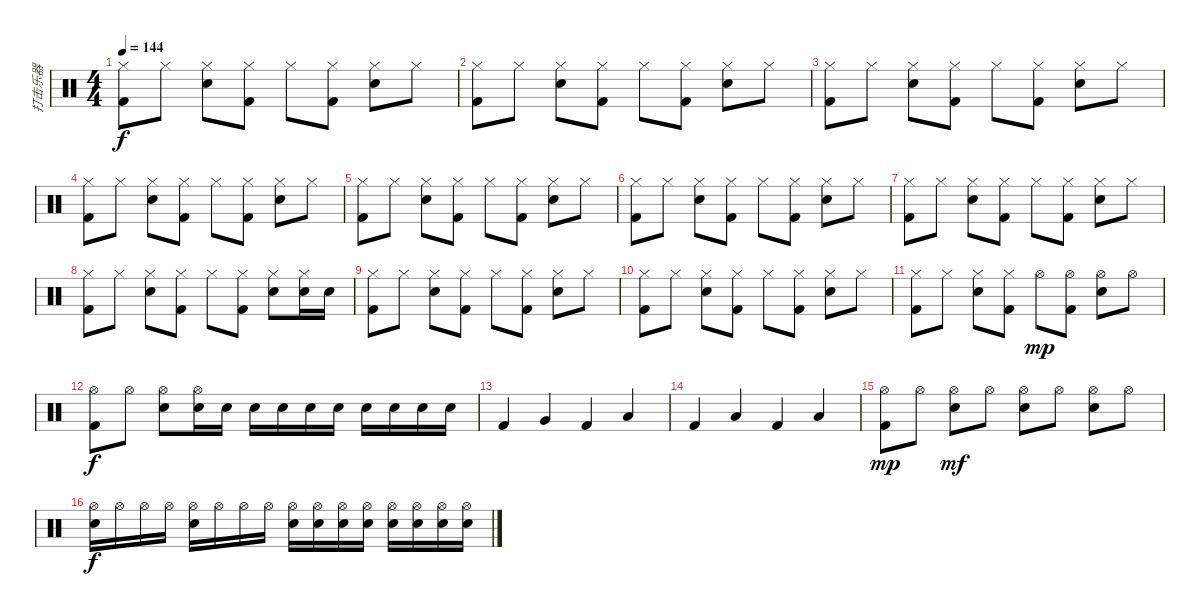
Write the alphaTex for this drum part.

\track ("打击乐器" "打击乐器") {instrument percussion}
\staff {score}
\articulation defaults
\ts (4 4)
\tempo 144
\clef neutral
\ks c
("Hi-Hat (closed)" "Kick (hit) 2").8{dy f} "Hi-Hat (closed)".8 ("Hi-Hat (closed)" "Electric Snare (hit)").8 ("Hi-Hat (closed)" "Kick (hit) 2").8 "Hi-Hat (closed)".8 ("Hi-Hat (closed)" "Kick (hit) 2").8 ("Hi-Hat (closed)" "Electric Snare (hit)").8 "Hi-Hat (closed)".8 |
("Hi-Hat (closed)" "Kick (hit) 2").8 "Hi-Hat (closed)".8 ("Hi-Hat (closed)" "Electric Snare (hit)").8 ("Hi-Hat (closed)" "Kick (hit) 2").8 "Hi-Hat (closed)".8 ("Hi-Hat (closed)" "Kick (hit) 2").8 ("Hi-Hat (closed)" "Electric Snare (hit)").8 "Hi-Hat (closed)".8 |
("Hi-Hat (closed)" "Kick (hit) 2").8 "Hi-Hat (closed)".8 ("Hi-Hat (closed)" "Electric Snare (hit)").8 ("Hi-Hat (closed)" "Kick (hit) 2").8 "Hi-Hat (closed)".8 ("Hi-Hat (closed)" "Kick (hit) 2").8 ("Hi-Hat (closed)" "Electric Snare (hit)").8 "Hi-Hat (closed)".8 |
("Hi-Hat (closed)" "Kick (hit) 2").8 "Hi-Hat (closed)".8 ("Hi-Hat (closed)" "Electric Snare (hit)").8 ("Hi-Hat (closed)" "Kick (hit) 2").8 "Hi-Hat (closed)".8 ("Hi-Hat (closed)" "Kick (hit) 2").8 ("Hi-Hat (closed)" "Electric Snare (hit)").8 "Hi-Hat (closed)".8 |
("Hi-Hat (closed)" "Kick (hit) 2").8 "Hi-Hat (closed)".8 ("Hi-Hat (closed)" "Electric Snare (hit)").8 ("Hi-Hat (closed)" "Kick (hit) 2").8 "Hi-Hat (closed)".8 ("Hi-Hat (closed)" "Kick (hit) 2").8 ("Hi-Hat (closed)" "Electric Snare (hit)").8 "Hi-Hat (closed)".8 |
("Hi-Hat (closed)" "Kick (hit) 2").8 "Hi-Hat (closed)".8 ("Hi-Hat (closed)" "Electric Snare (hit)").8 ("Hi-Hat (closed)" "Kick (hit) 2").8 "Hi-Hat (closed)".8 ("Hi-Hat (closed)" "Kick (hit) 2").8 ("Hi-Hat (closed)" "Electric Snare (hit)").8 "Hi-Hat (closed)".8 |
("Hi-Hat (closed)" "Kick (hit) 2").8 "Hi-Hat (closed)".8 ("Hi-Hat (closed)" "Electric Snare (hit)").8 ("Hi-Hat (closed)" "Kick (hit) 2").8 "Hi-Hat (closed)".8 ("Hi-Hat (closed)" "Kick (hit) 2").8 ("Hi-Hat (closed)" "Electric Snare (hit)").8 "Hi-Hat (closed)".8 |
("Hi-Hat (closed)" "Kick (hit) 2").8 "Hi-Hat (closed)".8 ("Hi-Hat (closed)" "Electric Snare (hit)").8 ("Hi-Hat (closed)" "Kick (hit) 2").8 "Hi-Hat (closed)".8 ("Hi-Hat (closed)" "Kick (hit) 2").8 ("Hi-Hat (closed)" "Electric Snare (hit)").8 ("Hi-Hat (closed)" "Electric Snare (hit)").16 "Electric Snare (hit)".16 |
("Hi-Hat (closed)" "Kick (hit) 2").8 "Hi-Hat (closed)".8 ("Hi-Hat (closed)" "Electric Snare (hit)").8 ("Hi-Hat (closed)" "Kick (hit) 2").8 "Hi-Hat (closed)".8 ("Hi-Hat (closed)" "Kick (hit) 2").8 ("Hi-Hat (closed)" "Electric Snare (hit)").8 "Hi-Hat (closed)".8 |
("Hi-Hat (closed)" "Kick (hit) 2").8 "Hi-Hat (closed)".8 ("Hi-Hat (closed)" "Electric Snare (hit)").8 ("Hi-Hat (closed)" "Kick (hit) 2").8 "Hi-Hat (closed)".8 ("Hi-Hat (closed)" "Kick (hit) 2").8 ("Hi-Hat (closed)" "Electric Snare (hit)").8 "Hi-Hat (closed)".8 |
("Hi-Hat (closed)" "Kick (hit) 2").8 "Hi-Hat (closed)".8 ("Hi-Hat (closed)" "Electric Snare (hit)").8 ("Hi-Hat (closed)" "Kick (hit) 2").8 "Hi-Hat (open)".8{dy mp} ("Hi-Hat (open)" "Kick (hit) 2").8 ("Hi-Hat (open)" "Electric Snare (hit)").8 "Hi-Hat (open)".8 |
("Hi-Hat (open)" "Kick (hit) 2").8{dy f} "Hi-Hat (open)".8 ("Hi-Hat (open)" "Electric Snare (hit)").8 ("Hi-Hat (open)" "Electric Snare (hit)").16 "Electric Snare (hit)".16 "Electric Snare (hit)".16 "Electric Snare (hit)".16 "Electric Snare (hit)".16 "Electric Snare (hit)".16 "Electric Snare (hit)".16 "Electric Snare (hit)".16 "Electric Snare (hit)".16 "Electric Snare (hit)".16 |
"Kick (hit) 2".4 "Very Low Tom (hit)".4 "Kick (hit) 2".4 "Low Floor Tom (hit)".4 |
"Kick (hit) 2".4 "Low Floor Tom (hit)".4 "Kick (hit) 2".4 "Low Floor Tom (hit)".4 |
("Hi-Hat (open)" "Kick (hit) 2").8{dy mp} "Hi-Hat (open)".8 ("Hi-Hat (open)" "Electric Snare (hit)").8{dy mf} "Hi-Hat (open)".8 ("Hi-Hat (open)" "Electric Snare (hit)").8 "Hi-Hat (open)".8 ("Hi-Hat (open)" "Electric Snare (hit)").8 "Hi-Hat (open)".8 |
("Hi-Hat (open)" "Electric Snare (hit)").16{dy f} "Hi-Hat (open)".16 "Hi-Hat (open)".16 "Hi-Hat (open)".16 ("Hi-Hat (open)" "Electric Snare (hit)").16 "Hi-Hat (open)".16 "Hi-Hat (open)".16 "Hi-Hat (open)".16 ("Hi-Hat (open)" "Electric Snare (hit)").16 ("Hi-Hat (open)" "Electric Snare (hit)").16 ("Hi-Hat (open)" "Electric Snare (hit)").16 ("Hi-Hat (open)" "Electric Snare (hit)").16 ("Hi-Hat (open)" "Electric Snare (hit)").16 ("Hi-Hat (open)" "Electric Snare (hit)").16 ("Hi-Hat (open)" "Electric Snare (hit)").16 ("Hi-Hat (open)" "Electric Snare (hit)").16
